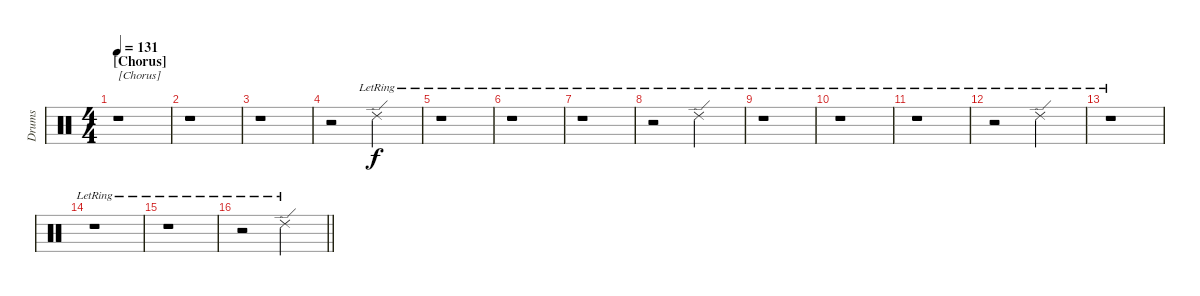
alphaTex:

\track ("Drums" "Drums") {instrument percussion}
\staff {score}
\articulation defaults
\ts (4 4)
\section ("" "[Chorus]")
\tempo 131
\clef neutral
\ks c
r.1{txt "[Chorus]" dy f} |
r.1 |
r.1 |
r.2 "Ride (edge) 2"{lr}.2 |
r.1 |
r.1 |
r.1 |
r.2 "Ride (edge) 2"{lr}.2 |
r.1 |
r.1 |
r.1 |
r.2 "Ride (edge) 2"{lr}.2 |
r.1 |
r.1 |
r.1 |
\barLineRight lightlight
r.2 "Ride (edge) 2"{lr}.2
